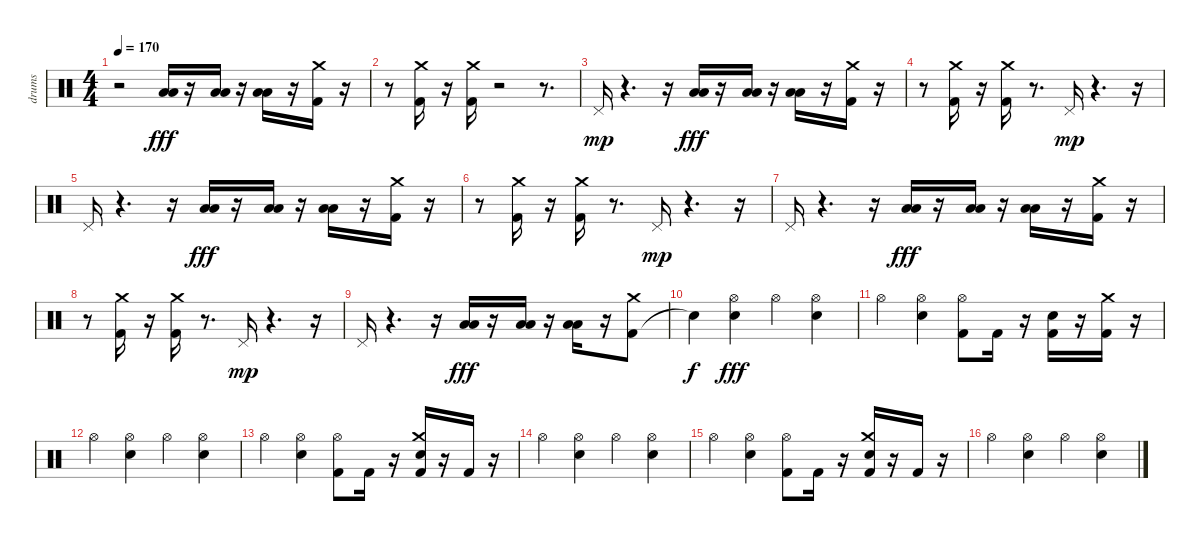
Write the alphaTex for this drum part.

\track ("drums" "drums") {instrument percussion}
\staff {score}
\articulation defaults
\ts (4 4)
\tempo 170
\clef neutral
\ks c
r.2{dy fff} ("Low Tom (hit)" "Low Floor Tom (hit)").16 r.16 ("Low Tom (hit)" "Low Floor Tom (hit)").16 r.16 ("Low Floor Tom (hit)" "Low Tom (hit)").16 r.16 ("Kick (hit) 2" "Crash medium (hit)").16 r.16 |
r.8 ("Crash medium (hit)" "Kick (hit) 2").16 r.16 ("Kick (hit) 2" "Crash medium (hit)").16 r.2 r.8{d} |
"Pedal Hi-Hat (hit)".16{dy mp} r.4{d} r.16 ("Low Tom (hit)" "Low Floor Tom (hit)").16{dy fff} r.16 ("Low Tom (hit)" "Low Floor Tom (hit)").16 r.16 ("Low Floor Tom (hit)" "Low Tom (hit)").16 r.16 ("Kick (hit) 2" "Crash medium (hit)").16 r.16 |
r.8 ("Crash medium (hit)" "Kick (hit) 2").16 r.16 ("Kick (hit) 2" "Crash medium (hit)").16 r.8{d} "Pedal Hi-Hat (hit)".16{dy mp} r.4{d} r.16 |
"Pedal Hi-Hat (hit)".16 r.4{d} r.16 ("Low Tom (hit)" "Low Floor Tom (hit)").16{dy fff} r.16 ("Low Tom (hit)" "Low Floor Tom (hit)").16 r.16 ("Low Floor Tom (hit)" "Low Tom (hit)").16 r.16 ("Kick (hit) 2" "Crash medium (hit)").16 r.16 |
r.8 ("Crash medium (hit)" "Kick (hit) 2").16 r.16 ("Kick (hit) 2" "Crash medium (hit)").16 r.8{d} "Pedal Hi-Hat (hit)".16{dy mp} r.4{d} r.16 |
"Pedal Hi-Hat (hit)".16 r.4{d} r.16 ("Low Tom (hit)" "Low Floor Tom (hit)").16{dy fff} r.16 ("Low Tom (hit)" "Low Floor Tom (hit)").16 r.16 ("Low Floor Tom (hit)" "Low Tom (hit)").16 r.16 ("Kick (hit) 2" "Crash medium (hit)").16 r.16 |
r.8 ("Crash medium (hit)" "Kick (hit) 2").16 r.16 ("Kick (hit) 2" "Crash medium (hit)").16 r.8{d} "Pedal Hi-Hat (hit)".16{dy mp} r.4{d} r.16 |
"Pedal Hi-Hat (hit)".16 r.4{d} r.16 ("Low Tom (hit)" "Low Floor Tom (hit)").16{dy fff} r.16 ("Low Tom (hit)" "Low Floor Tom (hit)").16 r.16 ("Low Floor Tom (hit)" "Low Tom (hit)").16 r.16 ("Kick (hit) 2" "Crash medium (hit)").8 |
"Snare (hit)"{t}.4{dy f} ("Hi-Hat (open)" "Electric Snare (hit)").4{dy fff} "Hi-Hat (open)".4 ("Electric Snare (hit)" "Hi-Hat (open)").4 |
"Hi-Hat (open)".4 ("Electric Snare (hit)" "Hi-Hat (open)").4 ("Kick (hit) 2" "Hi-Hat (open)").8 "Kick (hit) 2".16 r.16 ("Kick (hit) 2" "Electric Snare (hit)").16 r.16 ("Kick (hit) 2" "Crash medium (hit)").16 r.16 |
"Hi-Hat (open)".4 ("Electric Snare (hit)" "Hi-Hat (open)").4 "Hi-Hat (open)".4 ("Electric Snare (hit)" "Hi-Hat (open)").4 |
"Hi-Hat (open)".4 ("Electric Snare (hit)" "Hi-Hat (open)").4 ("Kick (hit) 2" "Hi-Hat (open)").8 "Kick (hit) 2".16 r.16 ("Kick (hit) 2" "Electric Snare (hit)" "Crash medium (hit)").16 r.16 "Kick (hit) 2".16 r.16 |
"Hi-Hat (open)".4 ("Electric Snare (hit)" "Hi-Hat (open)").4 "Hi-Hat (open)".4 ("Electric Snare (hit)" "Hi-Hat (open)").4 |
"Hi-Hat (open)".4 ("Electric Snare (hit)" "Hi-Hat (open)").4 ("Kick (hit) 2" "Hi-Hat (open)").8 "Kick (hit) 2".16 r.16 ("Kick (hit) 2" "Electric Snare (hit)" "Crash medium (hit)").16 r.16 "Kick (hit) 2".16 r.16 |
"Hi-Hat (open)".4 ("Electric Snare (hit)" "Hi-Hat (open)").4 "Hi-Hat (open)".4 ("Electric Snare (hit)" "Hi-Hat (open)").4
